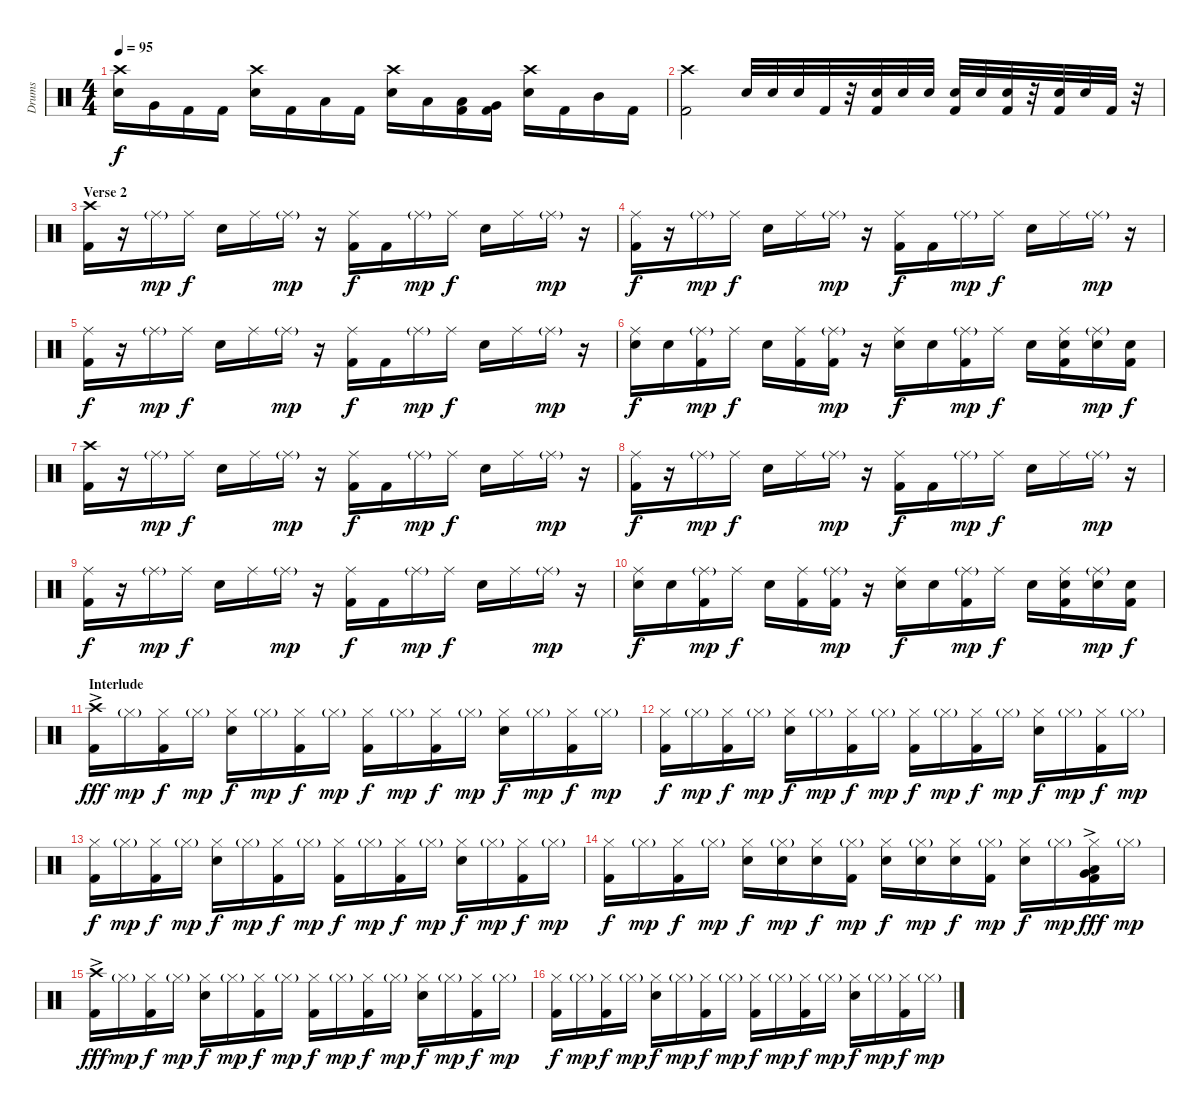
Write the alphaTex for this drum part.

\track ("Drums" "Drums") {instrument percussion}
\staff {score}
\articulation defaults
\ts (4 4)
\tempo 95
\clef neutral
\ks c
("Crash high (hit)" "Electric Snare (hit)").16{dy f} "Very Low Tom (hit)".16 "Kick (hit) 2".16 "Kick (hit) 2".16 ("Crash high (hit)" "Electric Snare (hit)").16 "Kick (hit) 2".16 "Low Floor Tom (hit)".16 "Kick (hit) 2".16 ("Crash high (hit)" "Electric Snare (hit)").16 "Low Floor Tom (hit)".16 ("Low Tom (hit)" "Kick (hit) 2").16 ("Very Low Tom (hit)" "Kick (hit) 2").16 ("Crash high (hit)" "Electric Snare (hit)").16 "Kick (hit) 2".16 "Mid Tom (hit)".16 "Kick (hit) 2".16 |
("Crash high (hit)" "Kick (hit) 2").2 "Electric Snare (hit)".32 "Electric Snare (hit)".32 "Electric Snare (hit)".32 "Kick (hit) 2".32 r.32 ("Electric Snare (hit)" "Kick (hit) 2").32 "Electric Snare (hit)".32 "Electric Snare (hit)".32 ("Electric Snare (hit)" "Kick (hit) 2").32 "Electric Snare (hit)".32 ("Electric Snare (hit)" "Kick (hit) 2").32 r.32 ("Electric Snare (hit)" "Kick (hit) 2").32 "Electric Snare (hit)".32 "Kick (hit) 2".32 r.32 |
\section ("" "Verse 2")
("Crash high (hit)" "Kick (hit) 2").16 r.16 "Ride (middle)"{g}.16{dy mp} "Ride (middle)".16{dy f} "Electric Snare (hit)".16 "Ride (middle)".16 "Ride (middle)"{g}.16{dy mp} r.16 ("Ride (middle)" "Kick (hit) 2").16{dy f} "Kick (hit) 2".16 "Ride (middle)"{g}.16{dy mp} "Ride (middle)".16{dy f} "Electric Snare (hit)".16 "Ride (middle)".16 "Ride (middle)"{g}.16{dy mp} r.16 |
("Ride (middle)" "Kick (hit) 2").16{dy f} r.16 "Ride (middle)"{g}.16{dy mp} "Ride (middle)".16{dy f} "Electric Snare (hit)".16 "Ride (middle)".16 "Ride (middle)"{g}.16{dy mp} r.16 ("Ride (middle)" "Kick (hit) 2").16{dy f} "Kick (hit) 2".16 "Ride (middle)"{g}.16{dy mp} "Ride (middle)".16{dy f} "Electric Snare (hit)".16 "Ride (middle)".16 "Ride (middle)"{g}.16{dy mp} r.16 |
("Ride (middle)" "Kick (hit) 2").16{dy f} r.16 "Ride (middle)"{g}.16{dy mp} "Ride (middle)".16{dy f} "Electric Snare (hit)".16 "Ride (middle)".16 "Ride (middle)"{g}.16{dy mp} r.16 ("Ride (middle)" "Kick (hit) 2").16{dy f} "Kick (hit) 2".16 "Ride (middle)"{g}.16{dy mp} "Ride (middle)".16{dy f} "Electric Snare (hit)".16 "Ride (middle)".16 "Ride (middle)"{g}.16{dy mp} r.16 |
("Ride (middle)" "Electric Snare (hit)").16{dy f} "Electric Snare (hit)".16 ("Ride (middle)"{g} "Kick (hit) 2").16{dy mp} "Ride (middle)".16{dy f} "Electric Snare (hit)".16 ("Ride (middle)" "Kick (hit) 2").16 ("Ride (middle)"{g} "Kick (hit) 2").16{dy mp} r.16 ("Ride (middle)" "Electric Snare (hit)").16{dy f} "Electric Snare (hit)".16 ("Ride (middle)"{g} "Kick (hit) 2").16{dy mp} "Ride (middle)".16{dy f} "Electric Snare (hit)".16 ("Ride (middle)" "Electric Snare (hit)" "Kick (hit) 2").16 ("Ride (middle)"{g} "Electric Snare (hit)").16{dy mp} ("Electric Snare (hit)" "Kick (hit) 2").16{dy f} |
("Crash high (hit)" "Kick (hit) 2").16 r.16 "Ride (middle)"{g}.16{dy mp} "Ride (middle)".16{dy f} "Electric Snare (hit)".16 "Ride (middle)".16 "Ride (middle)"{g}.16{dy mp} r.16 ("Ride (middle)" "Kick (hit) 2").16{dy f} "Kick (hit) 2".16 "Ride (middle)"{g}.16{dy mp} "Ride (middle)".16{dy f} "Electric Snare (hit)".16 "Ride (middle)".16 "Ride (middle)"{g}.16{dy mp} r.16 |
("Ride (middle)" "Kick (hit) 2").16{dy f} r.16 "Ride (middle)"{g}.16{dy mp} "Ride (middle)".16{dy f} "Electric Snare (hit)".16 "Ride (middle)".16 "Ride (middle)"{g}.16{dy mp} r.16 ("Ride (middle)" "Kick (hit) 2").16{dy f} "Kick (hit) 2".16 "Ride (middle)"{g}.16{dy mp} "Ride (middle)".16{dy f} "Electric Snare (hit)".16 "Ride (middle)".16 "Ride (middle)"{g}.16{dy mp} r.16 |
("Ride (middle)" "Kick (hit) 2").16{dy f} r.16 "Ride (middle)"{g}.16{dy mp} "Ride (middle)".16{dy f} "Electric Snare (hit)".16 "Ride (middle)".16 "Ride (middle)"{g}.16{dy mp} r.16 ("Ride (middle)" "Kick (hit) 2").16{dy f} "Kick (hit) 2".16 "Ride (middle)"{g}.16{dy mp} "Ride (middle)".16{dy f} "Electric Snare (hit)".16 "Ride (middle)".16 "Ride (middle)"{g}.16{dy mp} r.16 |
("Ride (middle)" "Electric Snare (hit)").16{dy f} "Electric Snare (hit)".16 ("Ride (middle)"{g} "Kick (hit) 2").16{dy mp} "Ride (middle)".16{dy f} "Electric Snare (hit)".16 ("Ride (middle)" "Kick (hit) 2").16 ("Ride (middle)"{g} "Kick (hit) 2").16{dy mp} r.16 ("Ride (middle)" "Electric Snare (hit)").16{dy f} "Electric Snare (hit)".16 ("Ride (middle)"{g} "Kick (hit) 2").16{dy mp} "Ride (middle)".16{dy f} "Electric Snare (hit)".16 ("Ride (middle)" "Electric Snare (hit)" "Kick (hit) 2").16 ("Ride (middle)"{g} "Electric Snare (hit)").16{dy mp} ("Electric Snare (hit)" "Kick (hit) 2").16{dy f} |
\section ("" "Interlude")
("Crash high (hit)"{ac} "Kick (hit) 2").16{dy fff} "Hi-Hat (closed)"{g}.16{dy mp} ("Hi-Hat (closed)" "Kick (hit) 2").16{dy f} "Hi-Hat (closed)"{g}.16{dy mp} ("Hi-Hat (closed)" "Electric Snare (hit)").16{dy f} "Hi-Hat (closed)"{g}.16{dy mp} ("Hi-Hat (closed)" "Kick (hit) 2").16{dy f} "Hi-Hat (closed)"{g}.16{dy mp} ("Hi-Hat (closed)" "Kick (hit) 2").16{dy f} "Hi-Hat (closed)"{g}.16{dy mp} ("Hi-Hat (closed)" "Kick (hit) 2").16{dy f} "Hi-Hat (closed)"{g}.16{dy mp} ("Hi-Hat (closed)" "Electric Snare (hit)").16{dy f} "Hi-Hat (closed)"{g}.16{dy mp} ("Hi-Hat (closed)" "Kick (hit) 2").16{dy f} "Hi-Hat (closed)"{g}.16{dy mp} |
("Hi-Hat (closed)" "Kick (hit) 2").16{dy f} "Hi-Hat (closed)"{g}.16{dy mp} ("Hi-Hat (closed)" "Kick (hit) 2").16{dy f} "Hi-Hat (closed)"{g}.16{dy mp} ("Hi-Hat (closed)" "Electric Snare (hit)").16{dy f} "Hi-Hat (closed)"{g}.16{dy mp} ("Hi-Hat (closed)" "Kick (hit) 2").16{dy f} "Hi-Hat (closed)"{g}.16{dy mp} ("Hi-Hat (closed)" "Kick (hit) 2").16{dy f} "Hi-Hat (closed)"{g}.16{dy mp} ("Hi-Hat (closed)" "Kick (hit) 2").16{dy f} "Hi-Hat (closed)"{g}.16{dy mp} ("Hi-Hat (closed)" "Electric Snare (hit)").16{dy f} "Hi-Hat (closed)"{g}.16{dy mp} ("Hi-Hat (closed)" "Kick (hit) 2").16{dy f} "Hi-Hat (closed)"{g}.16{dy mp} |
("Hi-Hat (closed)" "Kick (hit) 2").16{dy f} "Hi-Hat (closed)"{g}.16{dy mp} ("Hi-Hat (closed)" "Kick (hit) 2").16{dy f} "Hi-Hat (closed)"{g}.16{dy mp} ("Hi-Hat (closed)" "Electric Snare (hit)").16{dy f} "Hi-Hat (closed)"{g}.16{dy mp} ("Hi-Hat (closed)" "Kick (hit) 2").16{dy f} "Hi-Hat (closed)"{g}.16{dy mp} ("Hi-Hat (closed)" "Kick (hit) 2").16{dy f} "Hi-Hat (closed)"{g}.16{dy mp} ("Hi-Hat (closed)" "Kick (hit) 2").16{dy f} "Hi-Hat (closed)"{g}.16{dy mp} ("Hi-Hat (closed)" "Electric Snare (hit)").16{dy f} "Hi-Hat (closed)"{g}.16{dy mp} ("Hi-Hat (closed)" "Kick (hit) 2").16{dy f} "Hi-Hat (closed)"{g}.16{dy mp} |
("Hi-Hat (closed)" "Kick (hit) 2").16{dy f} "Hi-Hat (closed)"{g}.16{dy mp} ("Hi-Hat (closed)" "Kick (hit) 2").16{dy f} "Hi-Hat (closed)"{g}.16{dy mp} ("Hi-Hat (closed)" "Electric Snare (hit)").16{dy f} ("Hi-Hat (closed)"{g} "Electric Snare (hit)").16{dy mp} ("Hi-Hat (closed)" "Electric Snare (hit)").16{dy f} ("Hi-Hat (closed)"{g} "Kick (hit) 2").16{dy mp} ("Hi-Hat (closed)" "Electric Snare (hit)").16{dy f} ("Hi-Hat (closed)"{g} "Electric Snare (hit)").16{dy mp} ("Hi-Hat (closed)" "Electric Snare (hit)").16{dy f} ("Hi-Hat (closed)"{g} "Kick (hit) 2").16{dy mp} ("Hi-Hat (closed)" "Electric Snare (hit)").16{dy f} "Hi-Hat (closed)"{g}.16{dy mp} ("Hi-Hat (closed)" "Very Low Tom (hit)"{ac} "Low Floor Tom (hit)"{ac} "Kick (hit) 2").16{dy fff} "Hi-Hat (closed)"{g}.16{dy mp} |
("Crash high (hit)"{ac} "Kick (hit) 2").16{dy fff} "Hi-Hat (closed)"{g}.16{dy mp} ("Hi-Hat (closed)" "Kick (hit) 2").16{dy f} "Hi-Hat (closed)"{g}.16{dy mp} ("Hi-Hat (closed)" "Electric Snare (hit)").16{dy f} "Hi-Hat (closed)"{g}.16{dy mp} ("Hi-Hat (closed)" "Kick (hit) 2").16{dy f} "Hi-Hat (closed)"{g}.16{dy mp} ("Hi-Hat (closed)" "Kick (hit) 2").16{dy f} "Hi-Hat (closed)"{g}.16{dy mp} ("Hi-Hat (closed)" "Kick (hit) 2").16{dy f} "Hi-Hat (closed)"{g}.16{dy mp} ("Hi-Hat (closed)" "Electric Snare (hit)").16{dy f} "Hi-Hat (closed)"{g}.16{dy mp} ("Hi-Hat (closed)" "Kick (hit) 2").16{dy f} "Hi-Hat (closed)"{g}.16{dy mp} |
("Hi-Hat (closed)" "Kick (hit) 2").16{dy f} "Hi-Hat (closed)"{g}.16{dy mp} ("Hi-Hat (closed)" "Kick (hit) 2").16{dy f} "Hi-Hat (closed)"{g}.16{dy mp} ("Hi-Hat (closed)" "Electric Snare (hit)").16{dy f} "Hi-Hat (closed)"{g}.16{dy mp} ("Hi-Hat (closed)" "Kick (hit) 2").16{dy f} "Hi-Hat (closed)"{g}.16{dy mp} ("Hi-Hat (closed)" "Kick (hit) 2").16{dy f} "Hi-Hat (closed)"{g}.16{dy mp} ("Hi-Hat (closed)" "Kick (hit) 2").16{dy f} "Hi-Hat (closed)"{g}.16{dy mp} ("Hi-Hat (closed)" "Electric Snare (hit)").16{dy f} "Hi-Hat (closed)"{g}.16{dy mp} ("Hi-Hat (closed)" "Kick (hit) 2").16{dy f} "Hi-Hat (closed)"{g}.16{dy mp}
